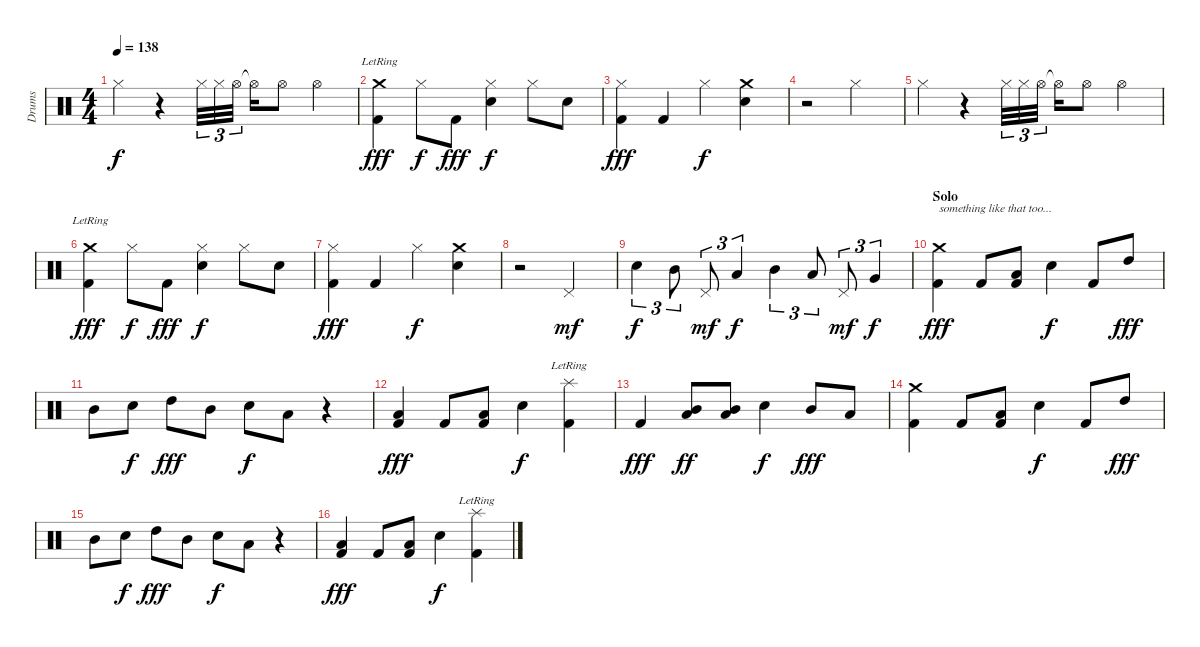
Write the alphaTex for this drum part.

\track ("Drums" "Drums") {instrument percussion}
\staff {score}
\articulation defaults
\ts (4 4)
\tempo 138
\clef neutral
\ks c "Hi-Hat (closed)".4{dy f}
r.4 "Hi-Hat (closed)".32{tu (3 2)} "Hi-Hat (closed)".32{tu (3 2)} "Hi-Hat (open)".32{tu (3 2)} "Hi-Hat (open)"{t}.16 "Hi-Hat (open)".8 "Hi-Hat (open)".4 |
("Crash medium (hit)"{lr} "Kick (hit) 2").4{dy fff} "Hi-Hat (closed)".8{dy f} "Kick (hit) 2".8{dy fff} ("Hi-Hat (closed)" "Snare (hit) 2").4{dy f} "Hi-Hat (closed)".8 "Snare (hit) 2".8 |
("Hi-Hat (closed)" "Kick (hit) 2").4{dy fff} "Kick (hit) 2".4 "Hi-Hat (closed)".4{dy f} ("Crash medium (hit)" "Snare (hit) 2").4 |
r.2 "Hi-Hat (closed)".2 |
"Hi-Hat (closed)".4 r.4 "Hi-Hat (closed)".32{tu (3 2)} "Hi-Hat (closed)".32{tu (3 2)} "Hi-Hat (open)".32{tu (3 2)} "Hi-Hat (open)"{t}.16 "Hi-Hat (open)".8 "Hi-Hat (open)".4 |
("Crash medium (hit)"{lr} "Kick (hit) 2").4{dy fff} "Hi-Hat (closed)".8{dy f} "Kick (hit) 2".8{dy fff} ("Hi-Hat (closed)" "Snare (hit) 2").4{dy f} "Hi-Hat (closed)".8 "Snare (hit) 2".8 |
("Hi-Hat (closed)" "Kick (hit) 2").4{dy fff} "Kick (hit) 2".4 "Hi-Hat (closed)".4{dy f} ("Crash medium (hit)" "Snare (hit) 2").4 |
r.2 "Pedal Hi-Hat (hit)".2{dy mf} |
"Snare (hit) 2".4{tu (3 2) dy f} "Mid Tom (hit)".8{tu (3 2)} "Pedal Hi-Hat (hit)".8{tu (3 2) dy mf} "Low Tom (hit)".4{tu (3 2) dy f} "Mid Tom (hit)".4{tu (3 2)} "Low Tom (hit)".8{tu (3 2)} "Pedal Hi-Hat (hit)".8{tu (3 2) dy mf} "Very Low Tom (hit)".4{tu (3 2) dy f} |
\section ("" "Solo")
("Crash medium (hit)" "Kick (hit) 2").4{txt "something like that too..." dy fff} "Kick (hit) 2".8 ("Low Tom (hit)" "Kick (hit) 2").8 "Snare (hit) 2".4{dy f} "Kick (hit) 2".8 "High Tom (hit)".8{dy fff} |
"Mid Tom (hit)".8 "Snare (hit) 2".8{dy f} "High Tom (hit)".8{dy fff} "Mid Tom (hit)".8 "Snare (hit) 2".8{dy f} "Low Tom (hit)".8 r.4 |
("Low Tom (hit)" "Kick (hit) 2").4{dy fff} "Kick (hit) 2".8 ("Low Tom (hit)" "Kick (hit) 2").8 "Snare (hit) 2".4{dy f} ("Splash (hit)"{lr} "Kick (hit) 2").4 |
"Kick (hit) 2".4{dy fff} ("Mid Tom (hit)" "Low Tom (hit)").8{dy ff} ("Mid Tom (hit)" "Low Tom (hit)").8 "Snare (hit) 2".4{dy f} "Mid Tom (hit)".8{dy fff} "Low Tom (hit)".8 |
("Crash medium (hit)" "Kick (hit) 2").4 "Kick (hit) 2".8 ("Low Tom (hit)" "Kick (hit) 2").8 "Snare (hit) 2".4{dy f} "Kick (hit) 2".8 "High Tom (hit)".8{dy fff} |
"Mid Tom (hit)".8 "Snare (hit) 2".8{dy f} "High Tom (hit)".8{dy fff} "Mid Tom (hit)".8 "Snare (hit) 2".8{dy f} "Low Tom (hit)".8 r.4 |
("Low Tom (hit)" "Kick (hit) 2").4{dy fff} "Kick (hit) 2".8 ("Low Tom (hit)" "Kick (hit) 2").8 "Snare (hit) 2".4{dy f} ("Splash (hit)"{lr} "Kick (hit) 2").4
